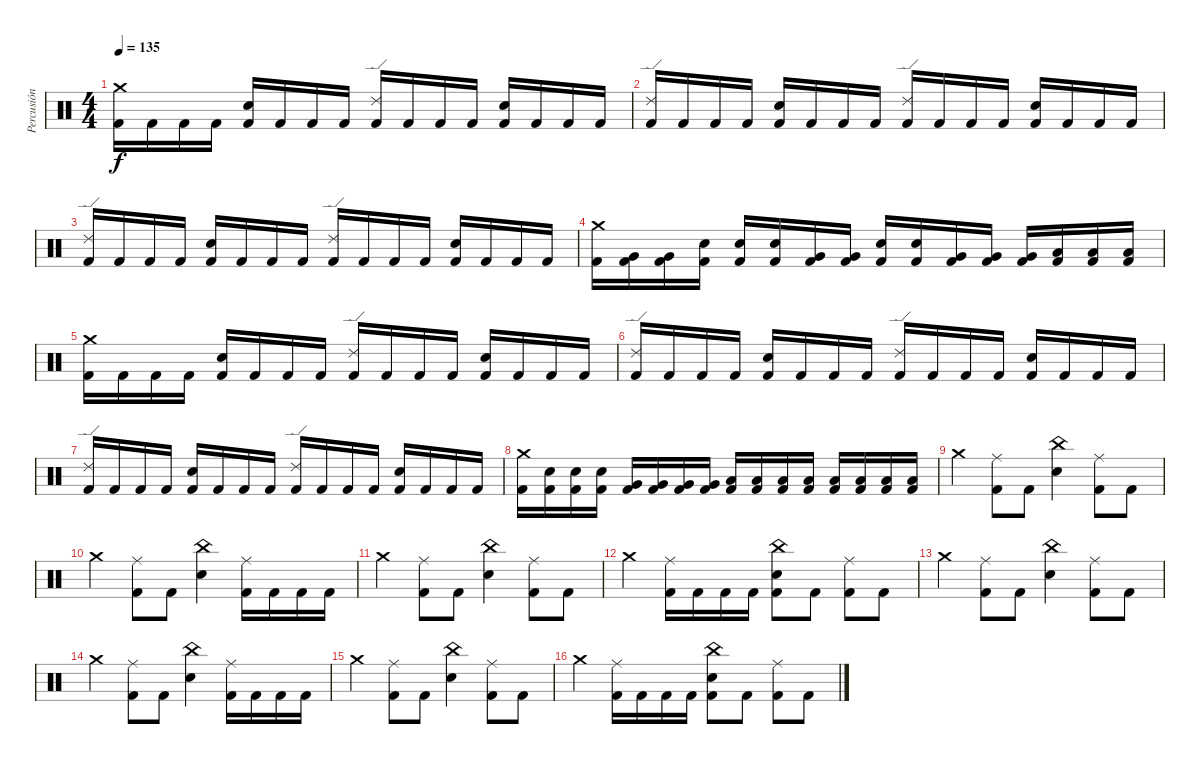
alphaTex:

\track ("Percusión" "Percusión") {instrument percussion}
\staff {score}
\articulation defaults
\ts (4 4)
\tempo 135
\clef neutral
\ks c
("Crash medium (hit)" "Kick (hit) 2").16{dy f} "Kick (hit) 2".16 "Kick (hit) 2".16 "Kick (hit) 2".16 ("Snare (hit) 2" "Kick (hit) 2").16 "Kick (hit) 2".16 "Kick (hit) 2".16 "Kick (hit) 2".16 ("Ride (edge) 2" "Kick (hit) 2").16 "Kick (hit) 2".16 "Kick (hit) 2".16 "Kick (hit) 2".16 ("Snare (hit) 2" "Kick (hit) 2").16 "Kick (hit) 2".16 "Kick (hit) 2".16 "Kick (hit) 2".16 |
("Ride (edge) 2" "Kick (hit) 2").16 "Kick (hit) 2".16 "Kick (hit) 2".16 "Kick (hit) 2".16 ("Snare (hit) 2" "Kick (hit) 2").16 "Kick (hit) 2".16 "Kick (hit) 2".16 "Kick (hit) 2".16 ("Ride (edge) 2" "Kick (hit) 2").16 "Kick (hit) 2".16 "Kick (hit) 2".16 "Kick (hit) 2".16 ("Snare (hit) 2" "Kick (hit) 2").16 "Kick (hit) 2".16 "Kick (hit) 2".16 "Kick (hit) 2".16 |
("Ride (edge) 2" "Kick (hit) 2").16 "Kick (hit) 2".16 "Kick (hit) 2".16 "Kick (hit) 2".16 ("Snare (hit) 2" "Kick (hit) 2").16 "Kick (hit) 2".16 "Kick (hit) 2".16 "Kick (hit) 2".16 ("Ride (edge) 2" "Kick (hit) 2").16 "Kick (hit) 2".16 "Kick (hit) 2".16 "Kick (hit) 2".16 ("Snare (hit) 2" "Kick (hit) 2").16 "Kick (hit) 2".16 "Kick (hit) 2".16 "Kick (hit) 2".16 |
("Crash medium (hit)" "Kick (hit) 2").16 ("Very Low Tom (hit)" "Kick (hit) 2").16 ("Very Low Tom (hit)" "Kick (hit) 2").16 ("Snare (hit) 2" "Kick (hit) 2").16 ("Snare (hit) 2" "Kick (hit) 2").16 ("Snare (hit) 2" "Kick (hit) 2").16 ("Very Low Tom (hit)" "Kick (hit) 2").16 ("Very Low Tom (hit)" "Kick (hit) 2").16 ("Snare (hit) 2" "Kick (hit) 2").16 ("Snare (hit) 2" "Kick (hit) 2").16 ("Very Low Tom (hit)" "Kick (hit) 2").16 ("Very Low Tom (hit)" "Kick (hit) 2").16 ("Very Low Tom (hit)" "Kick (hit) 2").16 ("Low Floor Tom (hit)" "Kick (hit) 2").16 ("Low Floor Tom (hit)" "Kick (hit) 2").16 ("Low Floor Tom (hit)" "Kick (hit) 2").16 |
("Crash medium (hit)" "Kick (hit) 2").16 "Kick (hit) 2".16 "Kick (hit) 2".16 "Kick (hit) 2".16 ("Snare (hit) 2" "Kick (hit) 2").16 "Kick (hit) 2".16 "Kick (hit) 2".16 "Kick (hit) 2".16 ("Ride (edge) 2" "Kick (hit) 2").16 "Kick (hit) 2".16 "Kick (hit) 2".16 "Kick (hit) 2".16 ("Snare (hit) 2" "Kick (hit) 2").16 "Kick (hit) 2".16 "Kick (hit) 2".16 "Kick (hit) 2".16 |
("Ride (edge) 2" "Kick (hit) 2").16 "Kick (hit) 2".16 "Kick (hit) 2".16 "Kick (hit) 2".16 ("Snare (hit) 2" "Kick (hit) 2").16 "Kick (hit) 2".16 "Kick (hit) 2".16 "Kick (hit) 2".16 ("Ride (edge) 2" "Kick (hit) 2").16 "Kick (hit) 2".16 "Kick (hit) 2".16 "Kick (hit) 2".16 ("Snare (hit) 2" "Kick (hit) 2").16 "Kick (hit) 2".16 "Kick (hit) 2".16 "Kick (hit) 2".16 |
("Ride (edge) 2" "Kick (hit) 2").16 "Kick (hit) 2".16 "Kick (hit) 2".16 "Kick (hit) 2".16 ("Snare (hit) 2" "Kick (hit) 2").16 "Kick (hit) 2".16 "Kick (hit) 2".16 "Kick (hit) 2".16 ("Ride (edge) 2" "Kick (hit) 2").16 "Kick (hit) 2".16 "Kick (hit) 2".16 "Kick (hit) 2".16 ("Snare (hit) 2" "Kick (hit) 2").16 "Kick (hit) 2".16 "Kick (hit) 2".16 "Kick (hit) 2".16 |
("Crash medium (hit)" "Kick (hit) 2").16 ("Snare (hit) 2" "Kick (hit) 2").16 ("Snare (hit) 2" "Kick (hit) 2").16 ("Snare (hit) 2" "Kick (hit) 2").16 ("Very Low Tom (hit)" "Kick (hit) 2").16 ("Very Low Tom (hit)" "Kick (hit) 2").16 ("Very Low Tom (hit)" "Kick (hit) 2").16 ("Very Low Tom (hit)" "Kick (hit) 2").16 ("Low Tom (hit)" "Kick (hit) 2").16 ("Low Tom (hit)" "Kick (hit) 2").16 ("Low Tom (hit)" "Kick (hit) 2").16 ("Low Tom (hit)" "Kick (hit) 2").16 ("Low Floor Tom (hit)" "Kick (hit) 2").16 ("Low Floor Tom (hit)" "Kick (hit) 2").16 ("Low Floor Tom (hit)" "Kick (hit) 2").16 ("Low Floor Tom (hit)" "Kick (hit) 2").16 |
"Crash medium (hit)".4 ("Ride (middle)" "Kick (hit) 2").8 "Kick (hit) 2".8 ("Snare (hit) 2" "China (hit)").4 ("Ride (middle)" "Kick (hit) 2").8 "Kick (hit) 2".8 |
"Crash medium (hit)".4 ("Ride (middle)" "Kick (hit) 2").8 "Kick (hit) 2".8 ("Snare (hit) 2" "China (hit)").4 ("Ride (middle)" "Kick (hit) 2").16 "Kick (hit) 2".16 "Kick (hit) 2".16 "Kick (hit) 2".16 |
"Crash medium (hit)".4 ("Ride (middle)" "Kick (hit) 2").8 "Kick (hit) 2".8 ("Snare (hit) 2" "China (hit)").4 ("Ride (middle)" "Kick (hit) 2").8 "Kick (hit) 2".8 |
"Crash medium (hit)".4 ("Ride (middle)" "Kick (hit) 2").16 "Kick (hit) 2".16 "Kick (hit) 2".16 "Kick (hit) 2".16 ("Snare (hit) 2" "China (hit)" "Kick (hit) 2").8 "Kick (hit) 2".8 ("Ride (middle)" "Kick (hit) 2").8 "Kick (hit) 2".8 |
"Crash medium (hit)".4 ("Ride (middle)" "Kick (hit) 2").8 "Kick (hit) 2".8 ("Snare (hit) 2" "China (hit)").4 ("Ride (middle)" "Kick (hit) 2").8 "Kick (hit) 2".8 |
"Crash medium (hit)".4 ("Ride (middle)" "Kick (hit) 2").8 "Kick (hit) 2".8 ("Snare (hit) 2" "China (hit)").4 ("Ride (middle)" "Kick (hit) 2").16 "Kick (hit) 2".16 "Kick (hit) 2".16 "Kick (hit) 2".16 |
"Crash medium (hit)".4 ("Ride (middle)" "Kick (hit) 2").8 "Kick (hit) 2".8 ("Snare (hit) 2" "China (hit)").4 ("Ride (middle)" "Kick (hit) 2").8 "Kick (hit) 2".8 |
"Crash medium (hit)".4 ("Ride (middle)" "Kick (hit) 2").16 "Kick (hit) 2".16 "Kick (hit) 2".16 "Kick (hit) 2".16 ("Snare (hit) 2" "China (hit)" "Kick (hit) 2").8 "Kick (hit) 2".8 ("Ride (middle)" "Kick (hit) 2").8 "Kick (hit) 2".8
